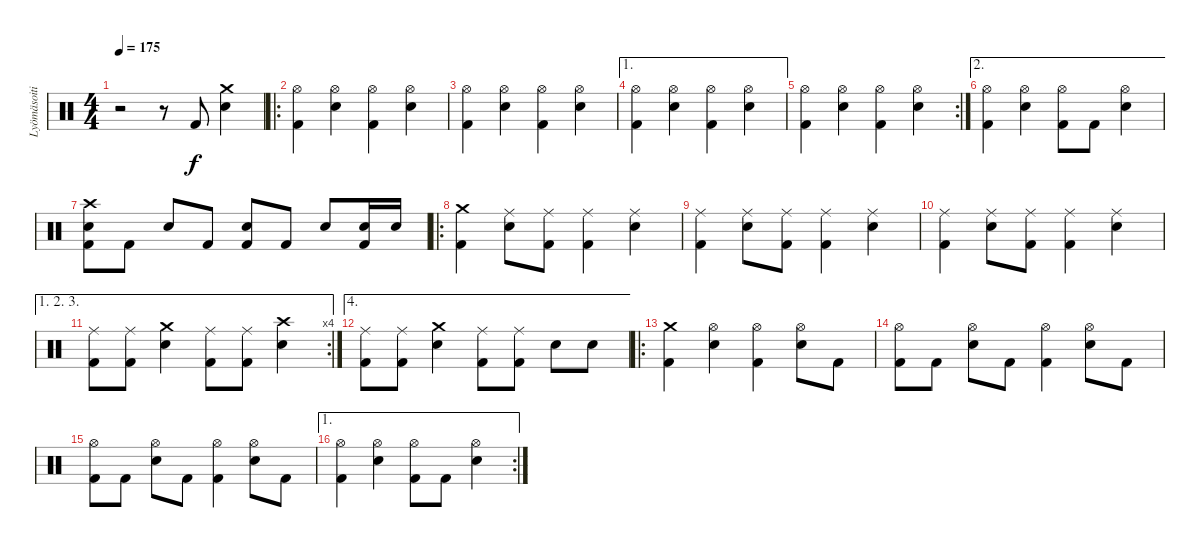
\track ("Lyömäsoitin" "Lyömäsoiti") {instrument percussion}
\staff {score}
\articulation defaults
\ts (4 4)
\tempo 175
\clef neutral
\ks c
r.2{dy f} r.8 "Kick (hit) 2".8 ("Crash medium (hit)" "Snare (hit) 2").4 |
\ro
("Hi-Hat (open)" "Kick (hit) 2").4 ("Hi-Hat (open)" "Snare (hit) 2").4 ("Hi-Hat (open)" "Kick (hit) 2").4 ("Hi-Hat (open)" "Snare (hit) 2").4 |
("Hi-Hat (open)" "Kick (hit) 2").4 ("Hi-Hat (open)" "Snare (hit) 2").4 ("Hi-Hat (open)" "Kick (hit) 2").4 ("Hi-Hat (open)" "Snare (hit) 2").4 |
\ae 1
("Hi-Hat (open)" "Kick (hit) 2").4 ("Hi-Hat (open)" "Snare (hit) 2").4 ("Hi-Hat (open)" "Kick (hit) 2").4 ("Hi-Hat (open)" "Snare (hit) 2").4 |
\rc 2
("Hi-Hat (open)" "Kick (hit) 2").4 ("Hi-Hat (open)" "Snare (hit) 2").4 ("Hi-Hat (open)" "Kick (hit) 2").4 ("Hi-Hat (open)" "Snare (hit) 2").4 |
\ae 2
("Hi-Hat (open)" "Kick (hit) 2").4 ("Hi-Hat (open)" "Snare (hit) 2").4 ("Hi-Hat (open)" "Kick (hit) 2").8 "Kick (hit) 2".8 ("Hi-Hat (open)" "Snare (hit) 2").4 |
("Crash high (hit)" "Snare (hit) 2" "Kick (hit) 2").8 "Kick (hit) 2".8 "Snare (hit) 2".8 "Kick (hit) 2".8 ("Snare (hit) 2" "Kick (hit) 2").8 "Kick (hit) 2".8 "Snare (hit) 2".8 ("Snare (hit) 2" "Kick (hit) 2").16 "Snare (hit) 2".16 |
\ro
("Crash medium (hit)" "Kick (hit) 2").4 ("Ride (middle)" "Snare (hit) 2").8 ("Ride (middle)" "Kick (hit) 2").8 ("Ride (middle)" "Kick (hit) 2").4 ("Ride (middle)" "Snare (hit) 2").4 |
("Ride (middle)" "Kick (hit) 2").4 ("Ride (middle)" "Snare (hit) 2").8 ("Ride (middle)" "Kick (hit) 2").8 ("Ride (middle)" "Kick (hit) 2").4 ("Ride (middle)" "Snare (hit) 2").4 |
("Ride (middle)" "Kick (hit) 2").4 ("Ride (middle)" "Snare (hit) 2").8 ("Ride (middle)" "Kick (hit) 2").8 ("Ride (middle)" "Kick (hit) 2").4 ("Ride (middle)" "Snare (hit) 2").4 |
\ae (1 2 3)
\rc 4
("Ride (middle)" "Kick (hit) 2").8 ("Ride (middle)" "Kick (hit) 2").8 ("Crash medium (hit)" "Snare (hit) 2").4 ("Ride (middle)" "Kick (hit) 2").8 ("Ride (middle)" "Kick (hit) 2").8 ("Crash high (hit)" "Snare (hit) 2").4 |
\ae 4
("Ride (middle)" "Kick (hit) 2").8 ("Ride (middle)" "Kick (hit) 2").8 ("Crash medium (hit)" "Snare (hit) 2").4 ("Ride (middle)" "Kick (hit) 2").8 ("Ride (middle)" "Kick (hit) 2").8 "Snare (hit) 2".8 "Snare (hit) 2".8 |
\ro
("Crash medium (hit)" "Kick (hit) 2").4 ("Hi-Hat (open)" "Snare (hit) 2").4 ("Hi-Hat (open)" "Kick (hit) 2").4 ("Hi-Hat (open)" "Snare (hit) 2").8 "Kick (hit) 2".8 |
("Hi-Hat (open)" "Kick (hit) 2").8 "Kick (hit) 2".8 ("Hi-Hat (open)" "Snare (hit) 2").8 "Kick (hit) 2".8 ("Hi-Hat (open)" "Kick (hit) 2").4 ("Hi-Hat (open)" "Snare (hit) 2").8 "Kick (hit) 2".8 |
("Hi-Hat (open)" "Kick (hit) 2").8 "Kick (hit) 2".8 ("Hi-Hat (open)" "Snare (hit) 2").8 "Kick (hit) 2".8 ("Hi-Hat (open)" "Kick (hit) 2").4 ("Hi-Hat (open)" "Snare (hit) 2").8 "Kick (hit) 2".8 |
\ae 1
\rc 2
("Hi-Hat (open)" "Kick (hit) 2").4 ("Hi-Hat (open)" "Snare (hit) 2").4 ("Hi-Hat (open)" "Kick (hit) 2").8 "Kick (hit) 2".8 ("Hi-Hat (open)" "Snare (hit) 2").4
